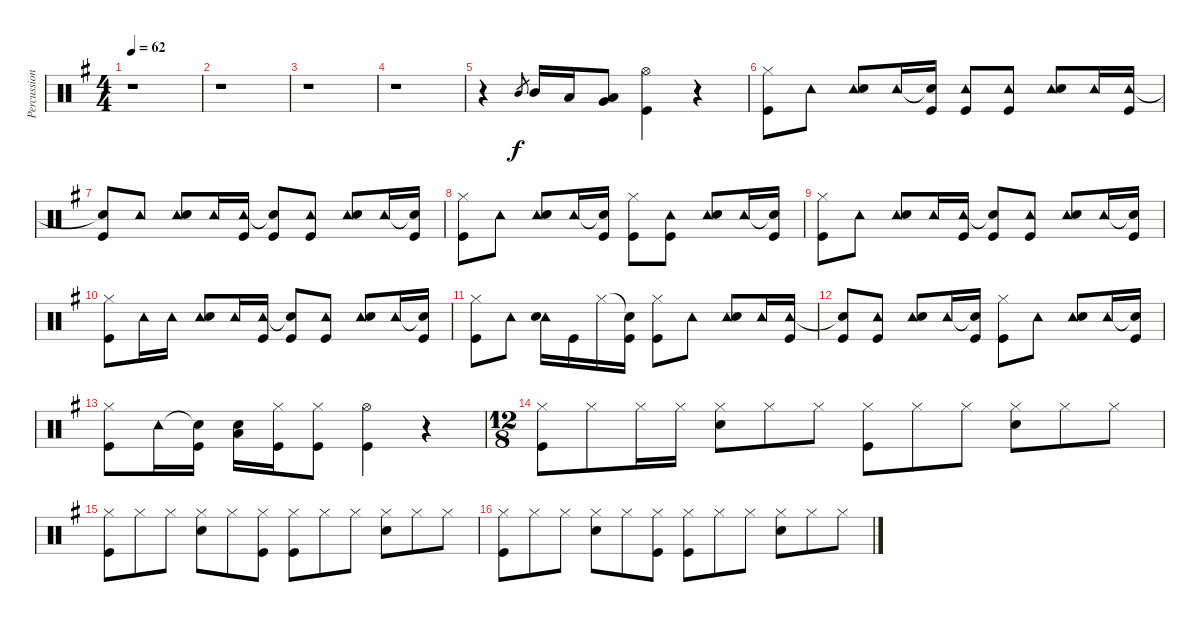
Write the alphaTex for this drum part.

\track ("Percussions" "Percussion") {instrument percussion}
\staff {score}
\articulation defaults
\ts (4 4)
\tempo 62
\clef neutral
\ks g
r.1{dy f} |
r.1 |
r.1 |
r.1 |
r.4 "Mid Tom (hit)".8{gr} "Mid Tom (hit)".16 "Low Tom (hit)".16 ("Low Tom (hit)" "Very Low Tom (hit)").8 ("Hi-Hat (open)" "Kick (hit)").4 r.4 |
("Hi-Hat (closed)" "Kick (hit)").8 "Tambourine (hit)".8 ("Tambourine (hit)" "Snare (hit) 2").8 "Tambourine (hit)".16 ("Snare (hit)"{t} "Kick (hit)").16 ("Tambourine (hit)" "Kick (hit)").8 ("Tambourine (hit)" "Kick (hit)").8 ("Tambourine (hit)" "Snare (hit) 2").8 "Tambourine (hit)".16 ("Tambourine (hit)" "Kick (hit)").16 |
("Snare (hit)"{t} "Kick (hit)").8 "Tambourine (hit)".8 ("Tambourine (hit)" "Snare (hit) 2").8 "Tambourine (hit)".16 ("Tambourine (hit)" "Kick (hit)").16 ("Snare (hit)"{t} "Kick (hit)").8 ("Tambourine (hit)" "Kick (hit)").8 ("Tambourine (hit)" "Snare (hit) 2").8 "Tambourine (hit)".16 ("Snare (hit)"{t} "Kick (hit)").16 |
("Hi-Hat (closed)" "Kick (hit)").8 "Tambourine (hit)".8 ("Tambourine (hit)" "Snare (hit) 2").8 "Tambourine (hit)".16 ("Snare (hit)"{t} "Kick (hit)").16 ("Hi-Hat (closed)" "Kick (hit)").8 ("Tambourine (hit)" "Kick (hit)").8 ("Tambourine (hit)" "Snare (hit) 2").8 "Tambourine (hit)".16 ("Snare (hit)"{t} "Kick (hit)").16 |
("Hi-Hat (closed)" "Kick (hit)").8 "Tambourine (hit)".8 ("Tambourine (hit)" "Snare (hit) 2").8 "Tambourine (hit)".16 ("Tambourine (hit)" "Kick (hit)").16 ("Snare (hit)"{t} "Kick (hit)").8 ("Tambourine (hit)" "Kick (hit)").8 ("Tambourine (hit)" "Snare (hit) 2").8 "Tambourine (hit)".16 ("Snare (hit)"{t} "Kick (hit)").16 |
("Hi-Hat (closed)" "Kick (hit)").8 "Tambourine (hit)".16 "Tambourine (hit)".16 ("Tambourine (hit)" "Snare (hit) 2").8 "Tambourine (hit)".16 ("Tambourine (hit)" "Kick (hit)").16 ("Snare (hit)"{t} "Kick (hit)").8 ("Tambourine (hit)" "Kick (hit)").8 ("Tambourine (hit)" "Snare (hit) 2").8 "Tambourine (hit)".16 ("Snare (hit)"{t} "Kick (hit)").16 |
("Hi-Hat (closed)" "Kick (hit)").8 "Tambourine (hit)".8 ("Tambourine (hit)" "Snare (hit) 2").16 "Kick (hit)".16 "Hi-Hat (closed)".16 ("Snare (hit)"{t} "Kick (hit)").16 ("Hi-Hat (closed)" "Kick (hit)").8 "Tambourine (hit)".8 ("Tambourine (hit)" "Snare (hit) 2").8 "Tambourine (hit)".16 ("Tambourine (hit)" "Kick (hit)").16 |
("Snare (hit)"{t} "Kick (hit)").8 ("Tambourine (hit)" "Kick (hit)").8 ("Tambourine (hit)" "Snare (hit) 2").8 "Tambourine (hit)".16 ("Snare (hit)"{t} "Kick (hit)").16 ("Hi-Hat (closed)" "Kick (hit)").8 "Tambourine (hit)".8 ("Tambourine (hit)" "Snare (hit) 2").8 "Tambourine (hit)".16 ("Snare (hit)"{t} "Kick (hit)").16 |
("Hi-Hat (closed)" "Kick (hit)").8 "Tambourine (hit)".16 ("Snare (hit)"{t} "Kick (hit)").16 ("Snare (hit) 2" "Low Tom (hit)").16 ("Hi-Hat (closed)" "Kick (hit)").16 ("Hi-Hat (closed)" "Kick (hit)").8 ("Hi-Hat (open)" "Kick (hit)").4 r.4 |
\ts (12 8)
("Hi-Hat (closed)" "Kick (hit)").8 "Hi-Hat (closed)".8 "Hi-Hat (closed)".16 "Hi-Hat (closed)".16 ("Hi-Hat (closed)" "Snare (hit) 2").8 "Hi-Hat (closed)".8 "Hi-Hat (closed)".8 ("Hi-Hat (closed)" "Kick (hit)").8 "Hi-Hat (closed)".8 "Hi-Hat (closed)".8 ("Hi-Hat (closed)" "Snare (hit) 2").8 "Hi-Hat (closed)".8 "Hi-Hat (closed)".8 |
("Hi-Hat (closed)" "Kick (hit)").8 "Hi-Hat (closed)".8 "Hi-Hat (closed)".8 ("Hi-Hat (closed)" "Snare (hit) 2").8 "Hi-Hat (closed)".8 ("Hi-Hat (closed)" "Kick (hit)").8 ("Hi-Hat (closed)" "Kick (hit)").8 "Hi-Hat (closed)".8 "Hi-Hat (closed)".8 ("Hi-Hat (closed)" "Snare (hit) 2").8 "Hi-Hat (closed)".8 "Hi-Hat (closed)".8 |
("Hi-Hat (closed)" "Kick (hit)").8 "Hi-Hat (closed)".8 "Hi-Hat (closed)".8 ("Hi-Hat (closed)" "Snare (hit) 2").8 "Hi-Hat (closed)".8 ("Hi-Hat (closed)" "Kick (hit)").8 ("Hi-Hat (closed)" "Kick (hit)").8 "Hi-Hat (closed)".8 "Hi-Hat (closed)".8 ("Hi-Hat (closed)" "Snare (hit) 2").8 "Hi-Hat (closed)".8 "Hi-Hat (closed)".8
